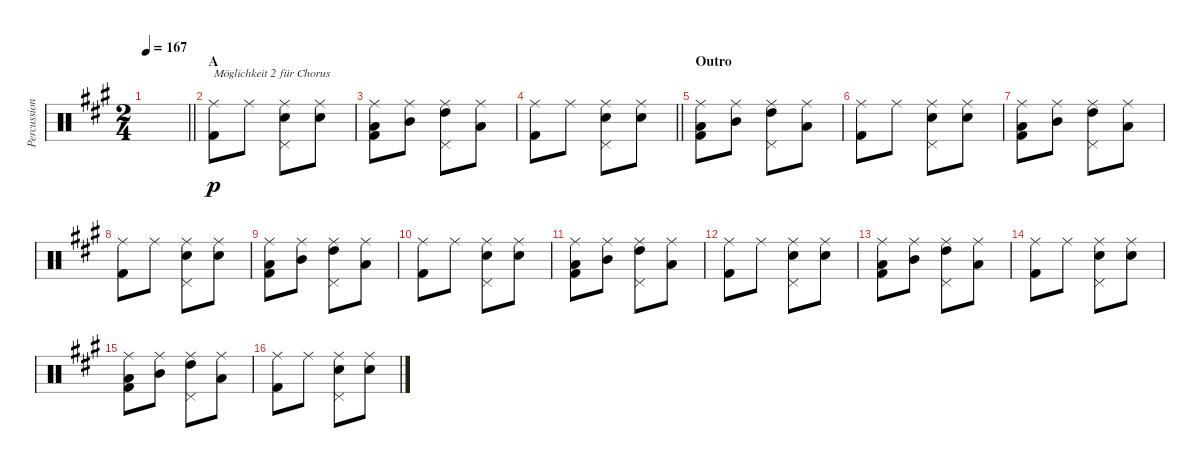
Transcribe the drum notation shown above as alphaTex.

\track ("Percussion" "Percussion") {instrument percussion}
\staff {score}
\articulation defaults
\ts (2 4)
\tempo 167
\clef neutral
\barLineRight lightlight
\ks a
|
\section ("" "A")
("Ride (middle)" "Kick (hit) 2").8{txt "Möglichkeit 2 für Chorus" dy p} "Ride (middle)".8 ("Ride (middle)" "Pedal Hi-Hat (hit)" "Snare (hit) 2").8 ("Ride (middle)" "Snare (hit) 2").8 |
("Ride (middle)" "Low Tom (hit)" "Kick (hit) 2").8 ("Ride (middle)" "Mid Tom (hit)").8 ("Ride (middle)" "High Tom (hit)" "Pedal Hi-Hat (hit)").8 ("Ride (middle)" "Low Tom (hit)").8 |
\barLineRight lightlight
("Ride (middle)" "Kick (hit) 2").8 "Ride (middle)".8 ("Ride (middle)" "Pedal Hi-Hat (hit)" "Snare (hit) 2").8 ("Ride (middle)" "Snare (hit) 2").8 |
\section ("" "Outro")
("Ride (middle)" "Low Tom (hit)" "Kick (hit) 2").8 ("Ride (middle)" "Mid Tom (hit)").8 ("Ride (middle)" "High Tom (hit)" "Pedal Hi-Hat (hit)").8 ("Ride (middle)" "Low Tom (hit)").8 |
("Ride (middle)" "Kick (hit) 2").8 "Ride (middle)".8 ("Ride (middle)" "Pedal Hi-Hat (hit)" "Snare (hit) 2").8 ("Ride (middle)" "Snare (hit) 2").8 |
("Ride (middle)" "Low Tom (hit)" "Kick (hit) 2").8 ("Ride (middle)" "Mid Tom (hit)").8 ("Ride (middle)" "High Tom (hit)" "Pedal Hi-Hat (hit)").8 ("Ride (middle)" "Low Tom (hit)").8 |
("Ride (middle)" "Kick (hit) 2").8 "Ride (middle)".8 ("Ride (middle)" "Pedal Hi-Hat (hit)" "Snare (hit) 2").8 ("Ride (middle)" "Snare (hit) 2").8 |
("Ride (middle)" "Low Tom (hit)" "Kick (hit) 2").8 ("Ride (middle)" "Mid Tom (hit)").8 ("Ride (middle)" "High Tom (hit)" "Pedal Hi-Hat (hit)").8 ("Ride (middle)" "Low Tom (hit)").8 |
("Ride (middle)" "Kick (hit) 2").8 "Ride (middle)".8 ("Ride (middle)" "Pedal Hi-Hat (hit)" "Snare (hit) 2").8 ("Ride (middle)" "Snare (hit) 2").8 |
("Ride (middle)" "Low Tom (hit)" "Kick (hit) 2").8 ("Ride (middle)" "Mid Tom (hit)").8 ("Ride (middle)" "High Tom (hit)" "Pedal Hi-Hat (hit)").8 ("Ride (middle)" "Low Tom (hit)").8 |
("Ride (middle)" "Kick (hit) 2").8 "Ride (middle)".8 ("Ride (middle)" "Pedal Hi-Hat (hit)" "Snare (hit) 2").8 ("Ride (middle)" "Snare (hit) 2").8 |
("Ride (middle)" "Low Tom (hit)" "Kick (hit) 2").8 ("Ride (middle)" "Mid Tom (hit)").8 ("Ride (middle)" "High Tom (hit)" "Pedal Hi-Hat (hit)").8 ("Ride (middle)" "Low Tom (hit)").8 |
("Ride (middle)" "Kick (hit) 2").8 "Ride (middle)".8 ("Ride (middle)" "Pedal Hi-Hat (hit)" "Snare (hit) 2").8 ("Ride (middle)" "Snare (hit) 2").8 |
("Ride (middle)" "Low Tom (hit)" "Kick (hit) 2").8 ("Ride (middle)" "Mid Tom (hit)").8 ("Ride (middle)" "High Tom (hit)" "Pedal Hi-Hat (hit)").8 ("Ride (middle)" "Low Tom (hit)").8 |
("Ride (middle)" "Kick (hit) 2").8 "Ride (middle)".8 ("Ride (middle)" "Pedal Hi-Hat (hit)" "Snare (hit) 2").8 ("Ride (middle)" "Snare (hit) 2").8
